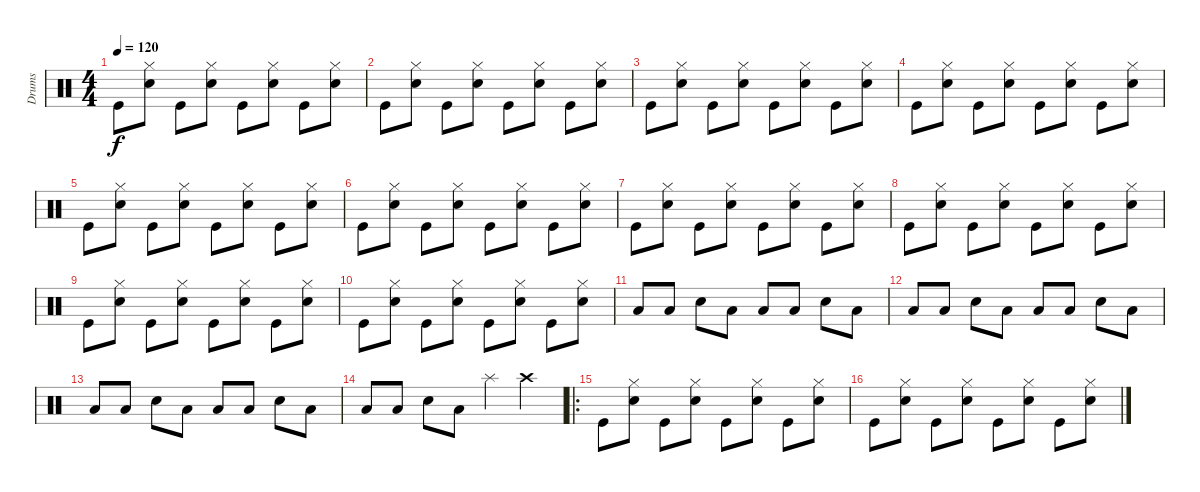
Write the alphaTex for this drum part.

\track ("Drums" "Drums") {instrument percussion}
\staff {score}
\articulation defaults
\ts (4 4)
\tempo 120
\clef neutral
\ks c "Kick (hit)".8{dy f}
("Hi-Hat (closed)" "Snare (hit) 2").8 "Kick (hit)".8 ("Hi-Hat (closed)" "Snare (hit) 2").8 "Kick (hit)".8 ("Hi-Hat (closed)" "Snare (hit) 2").8 "Kick (hit)".8 ("Hi-Hat (closed)" "Snare (hit) 2").8 |
"Kick (hit)".8 ("Hi-Hat (closed)" "Snare (hit) 2").8 "Kick (hit)".8 ("Hi-Hat (closed)" "Snare (hit) 2").8 "Kick (hit)".8 ("Hi-Hat (closed)" "Snare (hit) 2").8 "Kick (hit)".8 ("Hi-Hat (closed)" "Snare (hit) 2").8 |
"Kick (hit)".8 ("Hi-Hat (closed)" "Snare (hit) 2").8 "Kick (hit)".8 ("Hi-Hat (closed)" "Snare (hit) 2").8 "Kick (hit)".8 ("Hi-Hat (closed)" "Snare (hit) 2").8 "Kick (hit)".8 ("Hi-Hat (closed)" "Snare (hit) 2").8 |
"Kick (hit)".8 ("Hi-Hat (closed)" "Snare (hit) 2").8 "Kick (hit)".8 ("Hi-Hat (closed)" "Snare (hit) 2").8 "Kick (hit)".8 ("Hi-Hat (closed)" "Snare (hit) 2").8 "Kick (hit)".8 ("Hi-Hat (closed)" "Snare (hit) 2").8 |
"Kick (hit)".8 ("Hi-Hat (closed)" "Snare (hit) 2").8 "Kick (hit)".8 ("Hi-Hat (closed)" "Snare (hit) 2").8 "Kick (hit)".8 ("Hi-Hat (closed)" "Snare (hit) 2").8 "Kick (hit)".8 ("Hi-Hat (closed)" "Snare (hit) 2").8 |
"Kick (hit)".8 ("Hi-Hat (closed)" "Snare (hit) 2").8 "Kick (hit)".8 ("Hi-Hat (closed)" "Snare (hit) 2").8 "Kick (hit)".8 ("Hi-Hat (closed)" "Snare (hit) 2").8 "Kick (hit)".8 ("Hi-Hat (closed)" "Snare (hit) 2").8 |
"Kick (hit)".8 ("Hi-Hat (closed)" "Snare (hit) 2").8 "Kick (hit)".8 ("Hi-Hat (closed)" "Snare (hit) 2").8 "Kick (hit)".8 ("Hi-Hat (closed)" "Snare (hit) 2").8 "Kick (hit)".8 ("Hi-Hat (closed)" "Snare (hit) 2").8 |
"Kick (hit)".8 ("Hi-Hat (closed)" "Snare (hit) 2").8 "Kick (hit)".8 ("Hi-Hat (closed)" "Snare (hit) 2").8 "Kick (hit)".8 ("Hi-Hat (closed)" "Snare (hit) 2").8 "Kick (hit)".8 ("Hi-Hat (closed)" "Snare (hit) 2").8 |
"Kick (hit)".8 ("Hi-Hat (closed)" "Snare (hit) 2").8 "Kick (hit)".8 ("Hi-Hat (closed)" "Snare (hit) 2").8 "Kick (hit)".8 ("Hi-Hat (closed)" "Snare (hit) 2").8 "Kick (hit)".8 ("Hi-Hat (closed)" "Snare (hit) 2").8 |
"Kick (hit)".8 ("Hi-Hat (closed)" "Snare (hit) 2").8 "Kick (hit)".8 ("Hi-Hat (closed)" "Snare (hit) 2").8 "Kick (hit)".8 ("Hi-Hat (closed)" "Snare (hit) 2").8 "Kick (hit)".8 ("Hi-Hat (closed)" "Snare (hit) 2").8 |
"Low Floor Tom (hit)".8 "Low Floor Tom (hit)".8 "Snare (hit) 2".8 "Low Floor Tom (hit)".8 "Low Floor Tom (hit)".8 "Low Floor Tom (hit)".8 "Snare (hit) 2".8 "Low Floor Tom (hit)".8 |
"Low Floor Tom (hit)".8 "Low Floor Tom (hit)".8 "Snare (hit) 2".8 "Low Floor Tom (hit)".8 "Low Floor Tom (hit)".8 "Low Floor Tom (hit)".8 "Snare (hit) 2".8 "Low Floor Tom (hit)".8 |
"Low Floor Tom (hit)".8 "Low Floor Tom (hit)".8 "Snare (hit) 2".8 "Low Floor Tom (hit)".8 "Low Floor Tom (hit)".8 "Low Floor Tom (hit)".8 "Snare (hit) 2".8 "Low Floor Tom (hit)".8 |
"Low Floor Tom (hit)".8 "Low Floor Tom (hit)".8 "Snare (hit) 2".8 "Low Floor Tom (hit)".8 "Splash (hit)".4 "Crash high (hit)".4 |
\ro "Kick (hit)".8
("Hi-Hat (closed)" "Snare (hit) 2").8 "Kick (hit)".8 ("Hi-Hat (closed)" "Snare (hit) 2").8 "Kick (hit)".8 ("Hi-Hat (closed)" "Snare (hit) 2").8 "Kick (hit)".8 ("Hi-Hat (closed)" "Snare (hit) 2").8 |
"Kick (hit)".8 ("Hi-Hat (closed)" "Snare (hit) 2").8 "Kick (hit)".8 ("Hi-Hat (closed)" "Snare (hit) 2").8 "Kick (hit)".8 ("Hi-Hat (closed)" "Snare (hit) 2").8 "Kick (hit)".8 ("Hi-Hat (closed)" "Snare (hit) 2").8
